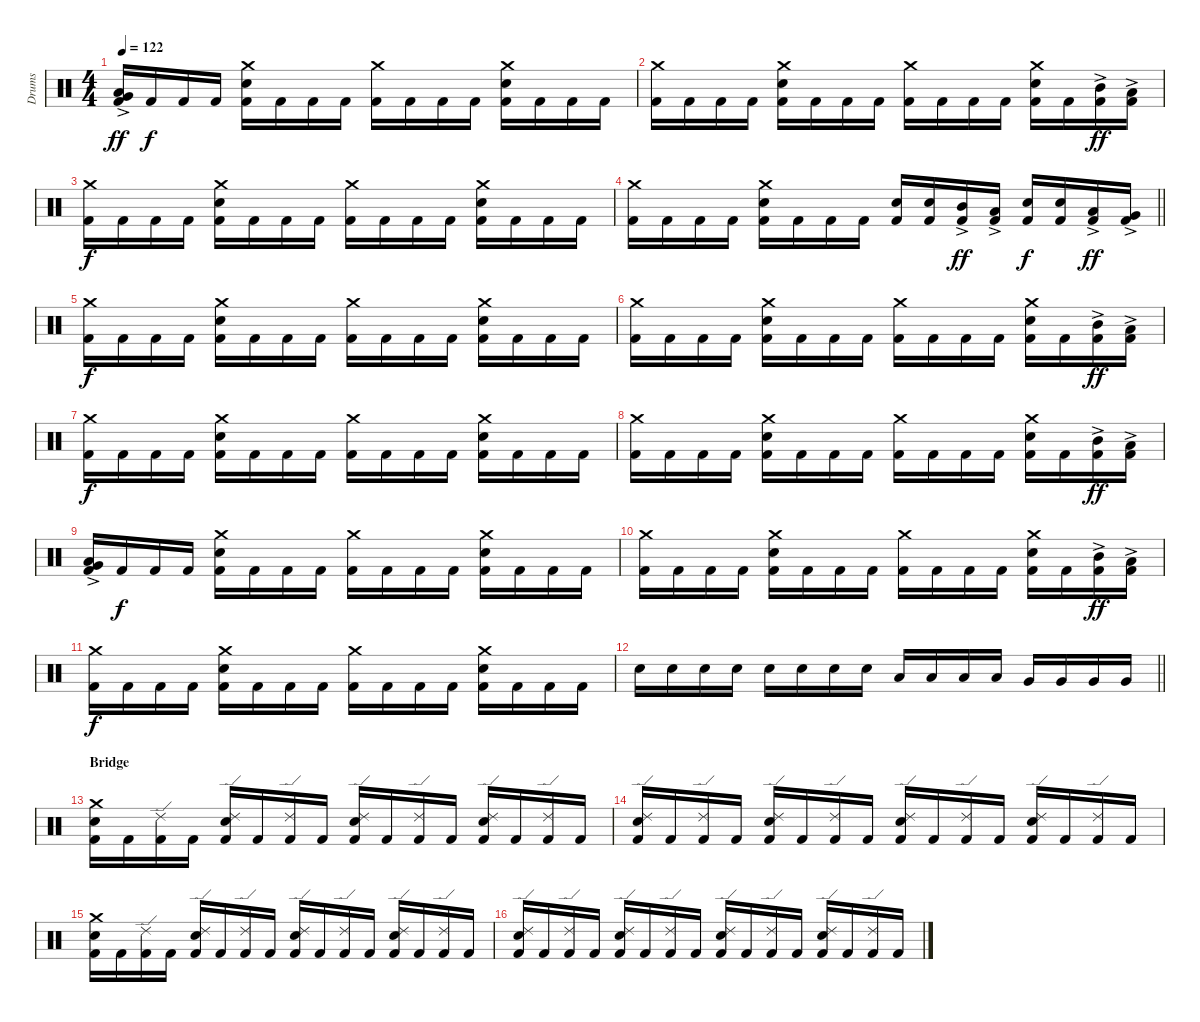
\track ("Drums" "Drums") {instrument percussion}
\staff {score}
\articulation defaults
\ts (4 4)
\tempo 122
\clef neutral
\ks c
("Kick (hit) 2" "Low Tom (hit)"{ac} "Very Low Tom (hit)").16{dy ff} "Kick (hit) 2".16{dy f} "Kick (hit) 2".16 "Kick (hit) 2".16 ("Kick (hit) 2" "Snare (hit) 2" "Crash medium (hit)").16 "Kick (hit) 2".16 "Kick (hit) 2".16 "Kick (hit) 2".16 ("Kick (hit) 2" "Crash medium (hit)").16 "Kick (hit) 2".16 "Kick (hit) 2".16 "Kick (hit) 2".16 ("Kick (hit) 2" "Snare (hit) 2" "Crash medium (hit)").16 "Kick (hit) 2".16 "Kick (hit) 2".16 "Kick (hit) 2".16 |
("Kick (hit) 2" "Crash medium (hit)").16 "Kick (hit) 2".16 "Kick (hit) 2".16 "Kick (hit) 2".16 ("Kick (hit) 2" "Snare (hit) 2" "Crash medium (hit)").16 "Kick (hit) 2".16 "Kick (hit) 2".16 "Kick (hit) 2".16 ("Kick (hit) 2" "Crash medium (hit)").16 "Kick (hit) 2".16 "Kick (hit) 2".16 "Kick (hit) 2".16 ("Kick (hit) 2" "Snare (hit) 2" "Crash medium (hit)").16 "Kick (hit) 2".16 ("Kick (hit) 2" "Mid Tom (hit)"{ac}).16{dy ff} ("Kick (hit) 2" "Low Tom (hit)"{ac}).16 |
("Kick (hit) 2" "Crash medium (hit)").16{dy f} "Kick (hit) 2".16 "Kick (hit) 2".16 "Kick (hit) 2".16 ("Kick (hit) 2" "Snare (hit) 2" "Crash medium (hit)").16 "Kick (hit) 2".16 "Kick (hit) 2".16 "Kick (hit) 2".16 ("Kick (hit) 2" "Crash medium (hit)").16 "Kick (hit) 2".16 "Kick (hit) 2".16 "Kick (hit) 2".16 ("Kick (hit) 2" "Snare (hit) 2" "Crash medium (hit)").16 "Kick (hit) 2".16 "Kick (hit) 2".16 "Kick (hit) 2".16 |
\barLineRight lightlight
("Kick (hit) 2" "Crash medium (hit)").16 "Kick (hit) 2".16 "Kick (hit) 2".16 "Kick (hit) 2".16 ("Kick (hit) 2" "Snare (hit) 2" "Crash medium (hit)").16 "Kick (hit) 2".16 "Kick (hit) 2".16 "Kick (hit) 2".16 ("Kick (hit) 2" "Snare (hit) 2").16 ("Kick (hit) 2" "Snare (hit) 2").16 ("Kick (hit) 2" "Mid Tom (hit)"{ac}).16{dy ff} ("Kick (hit) 2" "Low Tom (hit)"{ac}).16 ("Kick (hit) 2" "Snare (hit) 2").16{dy f} ("Kick (hit) 2" "Snare (hit) 2").16 ("Kick (hit) 2" "Low Tom (hit)"{ac}).16{dy ff} ("Kick (hit) 2" "Very Low Tom (hit)"{ac}).16 |
\section ("" "")
("Kick (hit) 2" "Crash medium (hit)").16{dy f} "Kick (hit) 2".16 "Kick (hit) 2".16 "Kick (hit) 2".16 ("Kick (hit) 2" "Snare (hit) 2" "Crash medium (hit)").16 "Kick (hit) 2".16 "Kick (hit) 2".16 "Kick (hit) 2".16 ("Kick (hit) 2" "Crash medium (hit)").16 "Kick (hit) 2".16 "Kick (hit) 2".16 "Kick (hit) 2".16 ("Kick (hit) 2" "Snare (hit) 2" "Crash medium (hit)").16 "Kick (hit) 2".16 "Kick (hit) 2".16 "Kick (hit) 2".16 |
("Kick (hit) 2" "Crash medium (hit)").16 "Kick (hit) 2".16 "Kick (hit) 2".16 "Kick (hit) 2".16 ("Kick (hit) 2" "Snare (hit) 2" "Crash medium (hit)").16 "Kick (hit) 2".16 "Kick (hit) 2".16 "Kick (hit) 2".16 ("Kick (hit) 2" "Crash medium (hit)").16 "Kick (hit) 2".16 "Kick (hit) 2".16 "Kick (hit) 2".16 ("Kick (hit) 2" "Snare (hit) 2" "Crash medium (hit)").16 "Kick (hit) 2".16 ("Kick (hit) 2" "Mid Tom (hit)"{ac}).16{dy ff} ("Kick (hit) 2" "Low Tom (hit)"{ac}).16 |
("Kick (hit) 2" "Crash medium (hit)").16{dy f} "Kick (hit) 2".16 "Kick (hit) 2".16 "Kick (hit) 2".16 ("Kick (hit) 2" "Snare (hit) 2" "Crash medium (hit)").16 "Kick (hit) 2".16 "Kick (hit) 2".16 "Kick (hit) 2".16 ("Kick (hit) 2" "Crash medium (hit)").16 "Kick (hit) 2".16 "Kick (hit) 2".16 "Kick (hit) 2".16 ("Kick (hit) 2" "Snare (hit) 2" "Crash medium (hit)").16 "Kick (hit) 2".16 "Kick (hit) 2".16 "Kick (hit) 2".16 |
("Kick (hit) 2" "Crash medium (hit)").16 "Kick (hit) 2".16 "Kick (hit) 2".16 "Kick (hit) 2".16 ("Kick (hit) 2" "Snare (hit) 2" "Crash medium (hit)").16 "Kick (hit) 2".16 "Kick (hit) 2".16 "Kick (hit) 2".16 ("Kick (hit) 2" "Crash medium (hit)").16 "Kick (hit) 2".16 "Kick (hit) 2".16 "Kick (hit) 2".16 ("Kick (hit) 2" "Snare (hit) 2" "Crash medium (hit)").16 "Kick (hit) 2".16 ("Kick (hit) 2" "Mid Tom (hit)"{ac}).16{dy ff} ("Kick (hit) 2" "Low Tom (hit)"{ac}).16 |
("Kick (hit) 2" "Low Tom (hit)"{ac} "Very Low Tom (hit)").16 "Kick (hit) 2".16{dy f} "Kick (hit) 2".16 "Kick (hit) 2".16 ("Kick (hit) 2" "Snare (hit) 2" "Crash medium (hit)").16 "Kick (hit) 2".16 "Kick (hit) 2".16 "Kick (hit) 2".16 ("Kick (hit) 2" "Crash medium (hit)").16 "Kick (hit) 2".16 "Kick (hit) 2".16 "Kick (hit) 2".16 ("Kick (hit) 2" "Snare (hit) 2" "Crash medium (hit)").16 "Kick (hit) 2".16 "Kick (hit) 2".16 "Kick (hit) 2".16 |
("Kick (hit) 2" "Crash medium (hit)").16 "Kick (hit) 2".16 "Kick (hit) 2".16 "Kick (hit) 2".16 ("Kick (hit) 2" "Snare (hit) 2" "Crash medium (hit)").16 "Kick (hit) 2".16 "Kick (hit) 2".16 "Kick (hit) 2".16 ("Kick (hit) 2" "Crash medium (hit)").16 "Kick (hit) 2".16 "Kick (hit) 2".16 "Kick (hit) 2".16 ("Kick (hit) 2" "Snare (hit) 2" "Crash medium (hit)").16 "Kick (hit) 2".16 ("Kick (hit) 2" "Mid Tom (hit)"{ac}).16{dy ff} ("Kick (hit) 2" "Low Tom (hit)"{ac}).16 |
("Kick (hit) 2" "Crash medium (hit)").16{dy f} "Kick (hit) 2".16 "Kick (hit) 2".16 "Kick (hit) 2".16 ("Kick (hit) 2" "Snare (hit) 2" "Crash medium (hit)").16 "Kick (hit) 2".16 "Kick (hit) 2".16 "Kick (hit) 2".16 ("Kick (hit) 2" "Crash medium (hit)").16 "Kick (hit) 2".16 "Kick (hit) 2".16 "Kick (hit) 2".16 ("Kick (hit) 2" "Snare (hit) 2" "Crash medium (hit)").16 "Kick (hit) 2".16 "Kick (hit) 2".16 "Kick (hit) 2".16 |
\barLineRight lightlight "Snare (hit) 2".16 "Snare (hit) 2".16 "Snare (hit) 2".16 "Snare (hit) 2".16 "Snare (hit) 2".16 "Snare (hit) 2".16 "Snare (hit) 2".16 "Snare (hit) 2".16 "Low Tom (hit)".16 "Low Tom (hit)".16 "Low Tom (hit)".16 "Low Tom (hit)".16 "Very Low Tom (hit)".16 "Very Low Tom (hit)".16 "Very Low Tom (hit)".16 "Very Low Tom (hit)".16
|
\section ("" "Bridge")
("Kick (hit) 2" "Snare (hit) 2" "Crash medium (hit)").16 "Kick (hit) 2".16 ("Kick (hit) 2" "Ride (edge) 2").16 "Kick (hit) 2".16 ("Kick (hit) 2" "Snare (hit) 2" "Ride (edge) 2").16 "Kick (hit) 2".16 ("Kick (hit) 2" "Ride (edge) 2").16 "Kick (hit) 2".16 ("Kick (hit) 2" "Snare (hit) 2" "Ride (edge) 2").16 "Kick (hit) 2".16 ("Kick (hit) 2" "Ride (edge) 2").16 "Kick (hit) 2".16 ("Kick (hit) 2" "Snare (hit) 2" "Ride (edge) 2").16 "Kick (hit) 2".16 ("Kick (hit) 2" "Ride (edge) 2").16 "Kick (hit) 2".16 |
("Kick (hit) 2" "Snare (hit) 2" "Ride (edge) 2").16 "Kick (hit) 2".16 ("Kick (hit) 2" "Ride (edge) 2").16 "Kick (hit) 2".16 ("Kick (hit) 2" "Snare (hit) 2" "Ride (edge) 2").16 "Kick (hit) 2".16 ("Kick (hit) 2" "Ride (edge) 2").16 "Kick (hit) 2".16 ("Kick (hit) 2" "Snare (hit) 2" "Ride (edge) 2").16 "Kick (hit) 2".16 ("Kick (hit) 2" "Ride (edge) 2").16 "Kick (hit) 2".16 ("Kick (hit) 2" "Snare (hit) 2" "Ride (edge) 2").16 "Kick (hit) 2".16 ("Kick (hit) 2" "Ride (edge) 2").16 "Kick (hit) 2".16 |
("Kick (hit) 2" "Snare (hit) 2" "Crash medium (hit)").16 "Kick (hit) 2".16 ("Kick (hit) 2" "Ride (edge) 2").16 "Kick (hit) 2".16 ("Kick (hit) 2" "Snare (hit) 2" "Ride (edge) 2").16 "Kick (hit) 2".16 ("Kick (hit) 2" "Ride (edge) 2").16 "Kick (hit) 2".16 ("Kick (hit) 2" "Snare (hit) 2" "Ride (edge) 2").16 "Kick (hit) 2".16 ("Kick (hit) 2" "Ride (edge) 2").16 "Kick (hit) 2".16 ("Kick (hit) 2" "Snare (hit) 2" "Ride (edge) 2").16 "Kick (hit) 2".16 ("Kick (hit) 2" "Ride (edge) 2").16 "Kick (hit) 2".16 |
("Kick (hit) 2" "Snare (hit) 2" "Ride (edge) 2").16 "Kick (hit) 2".16 ("Kick (hit) 2" "Ride (edge) 2").16 "Kick (hit) 2".16 ("Kick (hit) 2" "Snare (hit) 2" "Ride (edge) 2").16 "Kick (hit) 2".16 ("Kick (hit) 2" "Ride (edge) 2").16 "Kick (hit) 2".16 ("Kick (hit) 2" "Snare (hit) 2" "Ride (edge) 2").16 "Kick (hit) 2".16 ("Kick (hit) 2" "Ride (edge) 2").16 "Kick (hit) 2".16 ("Kick (hit) 2" "Snare (hit) 2" "Ride (edge) 2").16 "Kick (hit) 2".16 ("Kick (hit) 2" "Ride (edge) 2").16 "Kick (hit) 2".16
